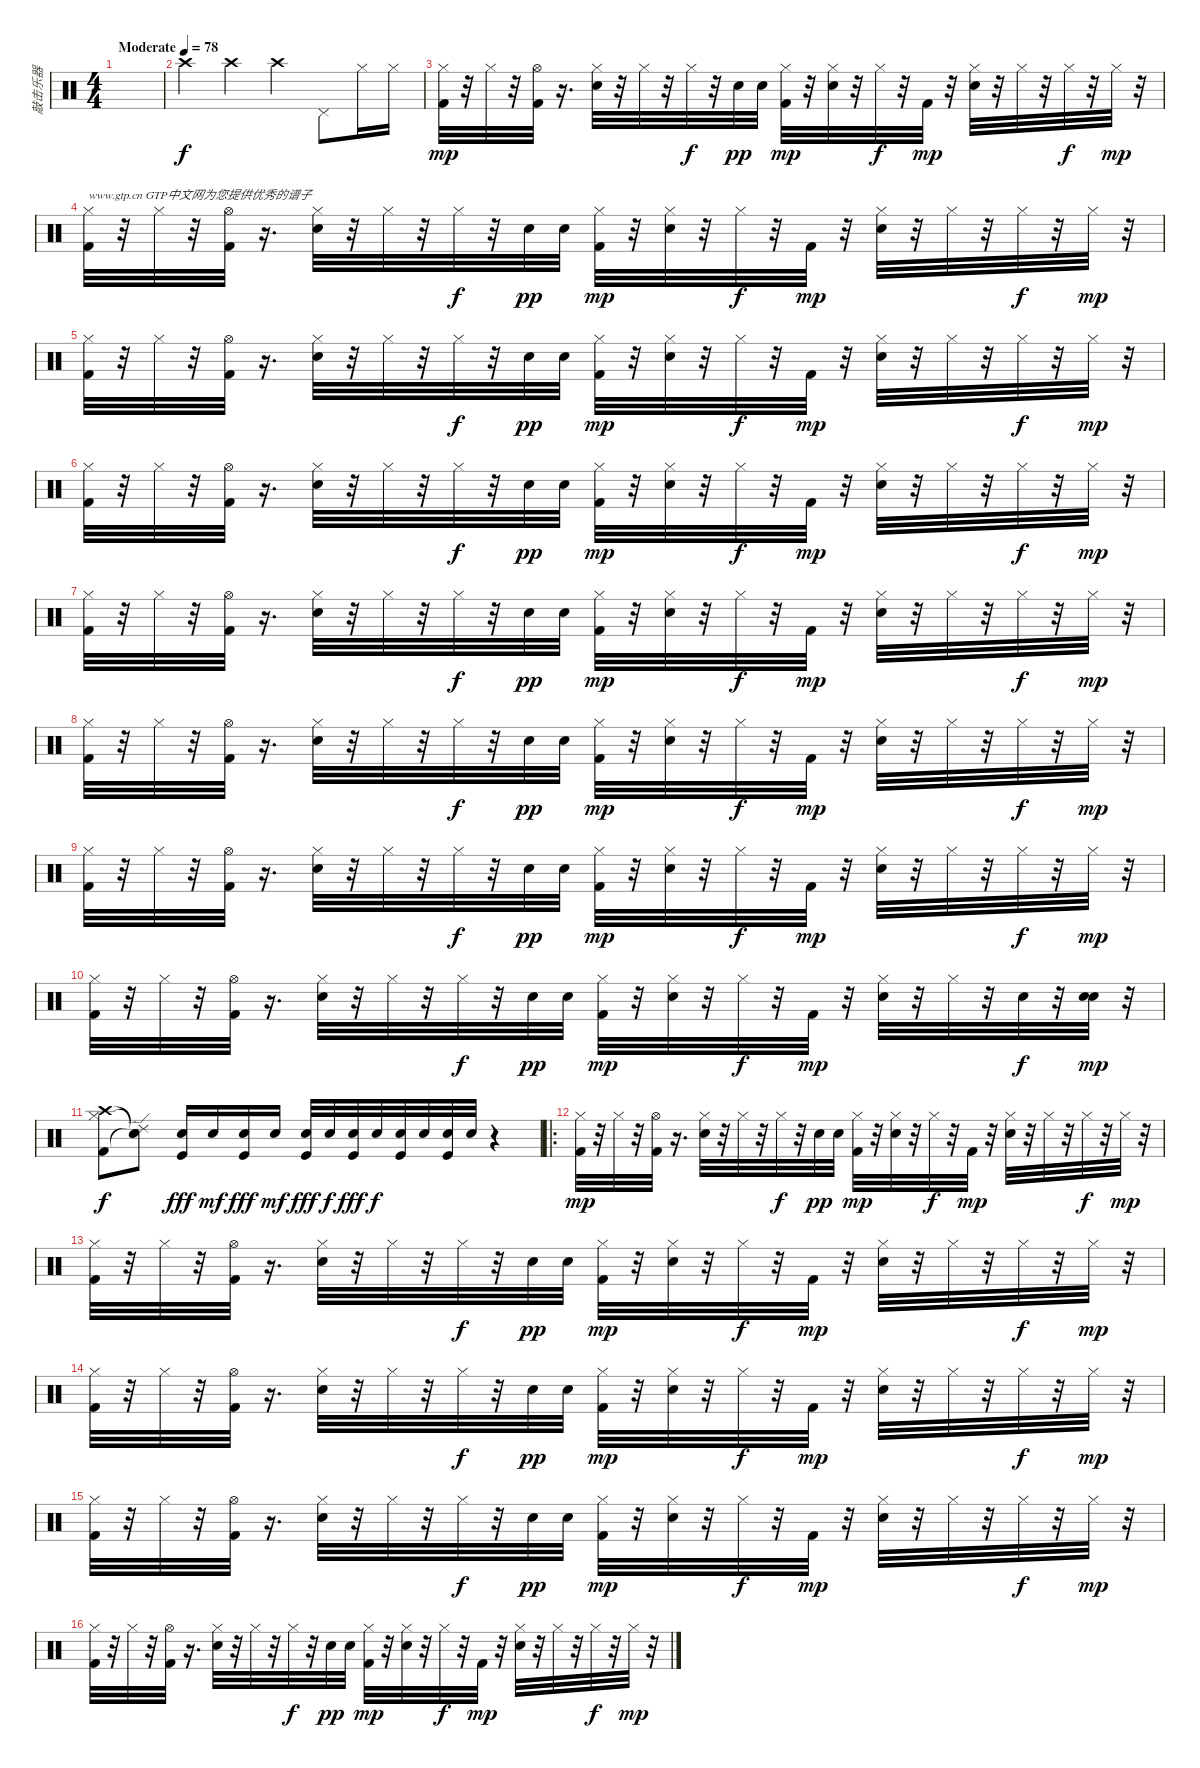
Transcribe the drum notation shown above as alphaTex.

\track ("敲击乐器" "敲击乐器") {instrument percussion}
\staff {score}
\articulation defaults
\ts (4 4)
\tempo (78 "Moderate")
\clef neutral
\ks c
|
"Crash high (hit)".4 "Crash high (hit)".4 "Crash high (hit)".4 "Pedal Hi-Hat (hit)".8 "Hi-Hat (closed)".16 "Hi-Hat (closed)".16 |
("Hi-Hat (closed)" "Kick (hit) 2").32{dy mp} r.32 "Hi-Hat (closed)".32 r.32 ("Kick (hit) 2" "Hi-Hat (open)").32 r.16{d} ("Hi-Hat (closed)" "Electric Snare (hit)").32 r.32 "Hi-Hat (closed)".32 r.32 "Hi-Hat (closed)".32{dy f} r.32 "Electric Snare (hit)".32{dy pp} "Electric Snare (hit)".32 ("Hi-Hat (closed)" "Kick (hit) 2").32{dy mp} r.32 ("Hi-Hat (closed)" "Electric Snare (hit)").32 r.32 "Hi-Hat (closed)".32{dy f} r.32 "Kick (hit) 2".32{dy mp} r.32 ("Electric Snare (hit)" "Hi-Hat (closed)").32 r.32 "Hi-Hat (closed)".32 r.32 "Hi-Hat (closed)".32{dy f} r.32 "Hi-Hat (closed)".32{dy mp} r.32 |
("Hi-Hat (closed)" "Kick (hit) 2").32{txt "www.gtp.cn GTP中文网为您提供优秀的谱子"} r.32 "Hi-Hat (closed)".32 r.32 ("Hi-Hat (open)" "Kick (hit) 2").32 r.16{d} ("Hi-Hat (closed)" "Electric Snare (hit)").32 r.32 "Hi-Hat (closed)".32 r.32 "Hi-Hat (closed)".32{dy f} r.32 "Electric Snare (hit)".32{dy pp} "Electric Snare (hit)".32 ("Kick (hit) 2" "Hi-Hat (closed)").32{dy mp} r.32 ("Hi-Hat (closed)" "Electric Snare (hit)").32 r.32 "Hi-Hat (closed)".32{dy f} r.32 "Kick (hit) 2".32{dy mp} r.32 ("Hi-Hat (closed)" "Electric Snare (hit)").32 r.32 "Hi-Hat (closed)".32 r.32 "Hi-Hat (closed)".32{dy f} r.32 "Hi-Hat (closed)".32{dy mp} r.32 |
("Hi-Hat (closed)" "Kick (hit) 2").32 r.32 "Hi-Hat (closed)".32 r.32 ("Hi-Hat (open)" "Kick (hit) 2").32 r.16{d} ("Hi-Hat (closed)" "Electric Snare (hit)").32 r.32 "Hi-Hat (closed)".32 r.32 "Hi-Hat (closed)".32{dy f} r.32 "Electric Snare (hit)".32{dy pp} "Electric Snare (hit)".32 ("Kick (hit) 2" "Hi-Hat (closed)").32{dy mp} r.32 ("Hi-Hat (closed)" "Electric Snare (hit)").32 r.32 "Hi-Hat (closed)".32{dy f} r.32 "Kick (hit) 2".32{dy mp} r.32 ("Hi-Hat (closed)" "Electric Snare (hit)").32 r.32 "Hi-Hat (closed)".32 r.32 "Hi-Hat (closed)".32{dy f} r.32 "Hi-Hat (closed)".32{dy mp} r.32 |
("Hi-Hat (closed)" "Kick (hit) 2").32 r.32 "Hi-Hat (closed)".32 r.32 ("Hi-Hat (open)" "Kick (hit) 2").32 r.16{d} ("Hi-Hat (closed)" "Electric Snare (hit)").32 r.32 "Hi-Hat (closed)".32 r.32 "Hi-Hat (closed)".32{dy f} r.32 "Electric Snare (hit)".32{dy pp} "Electric Snare (hit)".32 ("Hi-Hat (closed)" "Kick (hit) 2").32{dy mp} r.32 ("Hi-Hat (closed)" "Electric Snare (hit)").32 r.32 "Hi-Hat (closed)".32{dy f} r.32 "Kick (hit) 2".32{dy mp} r.32 ("Electric Snare (hit)" "Hi-Hat (closed)").32 r.32 "Hi-Hat (closed)".32 r.32 "Hi-Hat (closed)".32{dy f} r.32 "Hi-Hat (closed)".32{dy mp} r.32 |
("Hi-Hat (closed)" "Kick (hit) 2").32 r.32 "Hi-Hat (closed)".32 r.32 ("Kick (hit) 2" "Hi-Hat (open)").32 r.16{d} ("Hi-Hat (closed)" "Electric Snare (hit)").32 r.32 "Hi-Hat (closed)".32 r.32 "Hi-Hat (closed)".32{dy f} r.32 "Electric Snare (hit)".32{dy pp} "Electric Snare (hit)".32 ("Hi-Hat (closed)" "Kick (hit) 2").32{dy mp} r.32 ("Hi-Hat (closed)" "Electric Snare (hit)").32 r.32 "Hi-Hat (closed)".32{dy f} r.32 "Kick (hit) 2".32{dy mp} r.32 ("Electric Snare (hit)" "Hi-Hat (closed)").32 r.32 "Hi-Hat (closed)".32 r.32 "Hi-Hat (closed)".32{dy f} r.32 "Hi-Hat (closed)".32{dy mp} r.32 |
("Hi-Hat (closed)" "Kick (hit) 2").32 r.32 "Hi-Hat (closed)".32 r.32 ("Hi-Hat (open)" "Kick (hit) 2").32 r.16{d} ("Hi-Hat (closed)" "Electric Snare (hit)").32 r.32 "Hi-Hat (closed)".32 r.32 "Hi-Hat (closed)".32{dy f} r.32 "Electric Snare (hit)".32{dy pp} "Electric Snare (hit)".32 ("Kick (hit) 2" "Hi-Hat (closed)").32{dy mp} r.32 ("Hi-Hat (closed)" "Electric Snare (hit)").32 r.32 "Hi-Hat (closed)".32{dy f} r.32 "Kick (hit) 2".32{dy mp} r.32 ("Hi-Hat (closed)" "Electric Snare (hit)").32 r.32 "Hi-Hat (closed)".32 r.32 "Hi-Hat (closed)".32{dy f} r.32 "Hi-Hat (closed)".32{dy mp} r.32 |
("Hi-Hat (closed)" "Kick (hit) 2").32 r.32 "Hi-Hat (closed)".32 r.32 ("Hi-Hat (open)" "Kick (hit) 2").32 r.16{d} ("Hi-Hat (closed)" "Electric Snare (hit)").32 r.32 "Hi-Hat (closed)".32 r.32 "Hi-Hat (closed)".32{dy f} r.32 "Electric Snare (hit)".32{dy pp} "Electric Snare (hit)".32 ("Kick (hit) 2" "Hi-Hat (closed)").32{dy mp} r.32 ("Hi-Hat (closed)" "Electric Snare (hit)").32 r.32 "Hi-Hat (closed)".32{dy f} r.32 "Kick (hit) 2".32{dy mp} r.32 ("Hi-Hat (closed)" "Electric Snare (hit)").32 r.32 "Hi-Hat (closed)".32 r.32 "Hi-Hat (closed)".32{dy f} r.32 "Hi-Hat (closed)".32{dy mp} r.32 |
("Hi-Hat (closed)" "Kick (hit) 2").32 r.32 "Hi-Hat (closed)".32 r.32 ("Hi-Hat (open)" "Kick (hit) 2").32 r.16{d} ("Hi-Hat (closed)" "Electric Snare (hit)").32 r.32 "Hi-Hat (closed)".32 r.32 "Hi-Hat (closed)".32{dy f} r.32 "Electric Snare (hit)".32{dy pp} "Electric Snare (hit)".32 ("Hi-Hat (closed)" "Kick (hit) 2").32{dy mp} r.32 ("Hi-Hat (closed)" "Electric Snare (hit)").32 r.32 "Hi-Hat (closed)".32{dy f} r.32 "Kick (hit) 2".32{dy mp} r.32 ("Electric Snare (hit)" "Hi-Hat (closed)").32 r.32 "Hi-Hat (closed)".32 r.32 "Snare (hit) 2".32{dy f} r.32 ("Snare (hit) 2" "Electric Snare (hit)").32{dy mp} r.32 |
("Kick (hit) 2" "Hi-Hat (closed)" "Crash high (hit)").8{dy f} ("Snare (hit)"{t} "Ride (edge) 2"{t} "Snare (hit)"{t}).8 ("Electric Snare (hit)" "Kick (hit)").16{dy fff} "Electric Snare (hit)".16{dy mf} ("Electric Snare (hit)" "Kick (hit)").16{dy fff} "Electric Snare (hit)".16{dy mf} ("Electric Snare (hit)" "Kick (hit)").32{dy fff} "Electric Snare (hit)".32{dy f} ("Electric Snare (hit)" "Kick (hit)").32{dy fff} "Electric Snare (hit)".32{dy f} ("Electric Snare (hit)" "Kick (hit)").32 "Electric Snare (hit)".32 ("Electric Snare (hit)" "Kick (hit)").32 "Electric Snare (hit)".32 r.4 |
\ro
("Hi-Hat (closed)" "Kick (hit) 2").32{dy mp} r.32 "Hi-Hat (closed)".32 r.32 ("Hi-Hat (open)" "Kick (hit) 2").32 r.16{d} ("Hi-Hat (closed)" "Electric Snare (hit)").32 r.32 "Hi-Hat (closed)".32 r.32 "Hi-Hat (closed)".32{dy f} r.32 "Electric Snare (hit)".32{dy pp} "Electric Snare (hit)".32 ("Kick (hit) 2" "Hi-Hat (closed)").32{dy mp} r.32 ("Hi-Hat (closed)" "Electric Snare (hit)").32 r.32 "Hi-Hat (closed)".32{dy f} r.32 "Kick (hit) 2".32{dy mp} r.32 ("Hi-Hat (closed)" "Electric Snare (hit)").32 r.32 "Hi-Hat (closed)".32 r.32 "Hi-Hat (closed)".32{dy f} r.32 "Hi-Hat (closed)".32{dy mp} r.32 |
("Hi-Hat (closed)" "Kick (hit) 2").32 r.32 "Hi-Hat (closed)".32 r.32 ("Hi-Hat (open)" "Kick (hit) 2").32 r.16{d} ("Hi-Hat (closed)" "Electric Snare (hit)").32 r.32 "Hi-Hat (closed)".32 r.32 "Hi-Hat (closed)".32{dy f} r.32 "Electric Snare (hit)".32{dy pp} "Electric Snare (hit)".32 ("Kick (hit) 2" "Hi-Hat (closed)").32{dy mp} r.32 ("Hi-Hat (closed)" "Electric Snare (hit)").32 r.32 "Hi-Hat (closed)".32{dy f} r.32 "Kick (hit) 2".32{dy mp} r.32 ("Hi-Hat (closed)" "Electric Snare (hit)").32 r.32 "Hi-Hat (closed)".32 r.32 "Hi-Hat (closed)".32{dy f} r.32 "Hi-Hat (closed)".32{dy mp} r.32 |
("Hi-Hat (closed)" "Kick (hit) 2").32 r.32 "Hi-Hat (closed)".32 r.32 ("Hi-Hat (open)" "Kick (hit) 2").32 r.16{d} ("Hi-Hat (closed)" "Electric Snare (hit)").32 r.32 "Hi-Hat (closed)".32 r.32 "Hi-Hat (closed)".32{dy f} r.32 "Electric Snare (hit)".32{dy pp} "Electric Snare (hit)".32 ("Hi-Hat (closed)" "Kick (hit) 2").32{dy mp} r.32 ("Hi-Hat (closed)" "Electric Snare (hit)").32 r.32 "Hi-Hat (closed)".32{dy f} r.32 "Kick (hit) 2".32{dy mp} r.32 ("Electric Snare (hit)" "Hi-Hat (closed)").32 r.32 "Hi-Hat (closed)".32 r.32 "Hi-Hat (closed)".32{dy f} r.32 "Hi-Hat (closed)".32{dy mp} r.32 |
("Hi-Hat (closed)" "Kick (hit) 2").32 r.32 "Hi-Hat (closed)".32 r.32 ("Kick (hit) 2" "Hi-Hat (open)").32 r.16{d} ("Hi-Hat (closed)" "Electric Snare (hit)").32 r.32 "Hi-Hat (closed)".32 r.32 "Hi-Hat (closed)".32{dy f} r.32 "Electric Snare (hit)".32{dy pp} "Electric Snare (hit)".32 ("Hi-Hat (closed)" "Kick (hit) 2").32{dy mp} r.32 ("Hi-Hat (closed)" "Electric Snare (hit)").32 r.32 "Hi-Hat (closed)".32{dy f} r.32 "Kick (hit) 2".32{dy mp} r.32 ("Electric Snare (hit)" "Hi-Hat (closed)").32 r.32 "Hi-Hat (closed)".32 r.32 "Hi-Hat (closed)".32{dy f} r.32 "Hi-Hat (closed)".32{dy mp} r.32 |
("Hi-Hat (closed)" "Kick (hit) 2").32 r.32 "Hi-Hat (closed)".32 r.32 ("Hi-Hat (open)" "Kick (hit) 2").32 r.16{d} ("Hi-Hat (closed)" "Electric Snare (hit)").32 r.32 "Hi-Hat (closed)".32 r.32 "Hi-Hat (closed)".32{dy f} r.32 "Electric Snare (hit)".32{dy pp} "Electric Snare (hit)".32 ("Kick (hit) 2" "Hi-Hat (closed)").32{dy mp} r.32 ("Hi-Hat (closed)" "Electric Snare (hit)").32 r.32 "Hi-Hat (closed)".32{dy f} r.32 "Kick (hit) 2".32{dy mp} r.32 ("Hi-Hat (closed)" "Electric Snare (hit)").32 r.32 "Hi-Hat (closed)".32 r.32 "Hi-Hat (closed)".32{dy f} r.32 "Hi-Hat (closed)".32{dy mp} r.32
